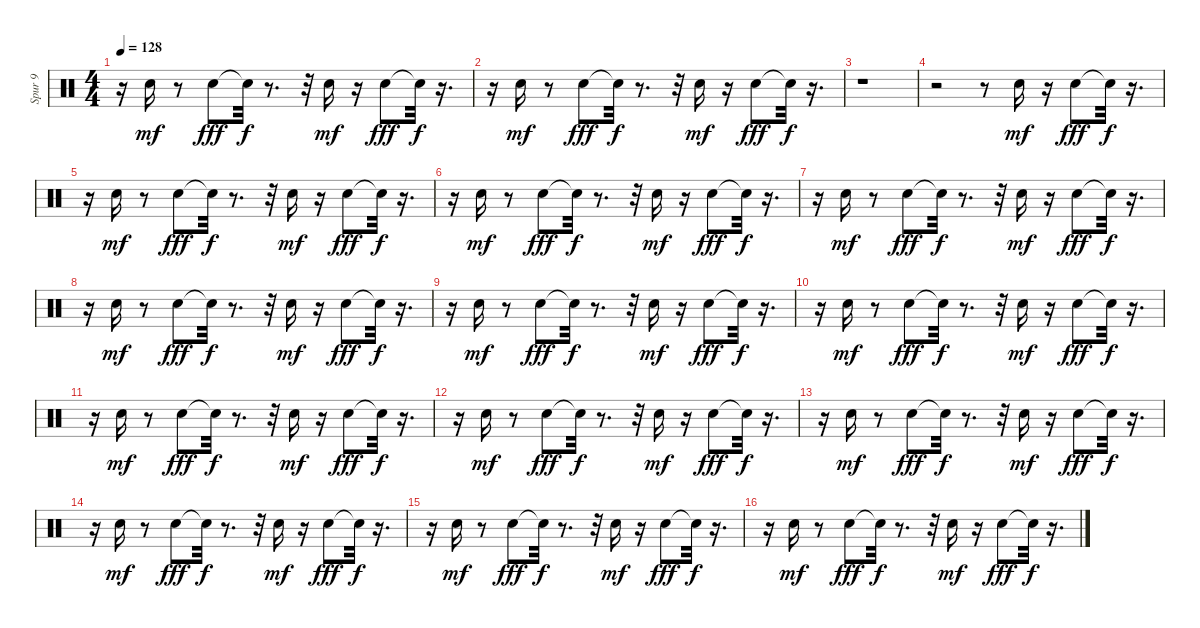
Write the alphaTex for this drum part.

\track ("Spur 9" "Spur 9") {instrument percussion}
\staff {score}
\articulation defaults
\ts (4 4)
\tempo 128
\clef neutral
\ks c
r.16{dy f} "Snare (hit) 2".16{dy mf} r.8 "Electric Snare (hit)".8{dy fff} "Snare (hit)"{t}.32{dy f} r.8{d} r.32 "Snare (hit) 2".16{dy mf} r.16 "Electric Snare (hit)".8{dy fff} "Snare (hit)"{t}.32{dy f} r.16{d} |
r.16 "Snare (hit) 2".16{dy mf} r.8 "Electric Snare (hit)".8{dy fff} "Snare (hit)"{t}.32{dy f} r.8{d} r.32 "Snare (hit) 2".16{dy mf} r.16 "Electric Snare (hit)".8{dy fff} "Snare (hit)"{t}.32{dy f} r.16{d} |
r.1 |
r.2 r.8 "Snare (hit) 2".16{dy mf} r.16 "Electric Snare (hit)".8{dy fff} "Snare (hit)"{t}.32{dy f} r.16{d} |
r.16 "Snare (hit) 2".16{dy mf} r.8 "Electric Snare (hit)".8{dy fff} "Snare (hit)"{t}.32{dy f} r.8{d} r.32 "Snare (hit) 2".16{dy mf} r.16 "Electric Snare (hit)".8{dy fff} "Snare (hit)"{t}.32{dy f} r.16{d} |
r.16 "Snare (hit) 2".16{dy mf} r.8 "Electric Snare (hit)".8{dy fff} "Snare (hit)"{t}.32{dy f} r.8{d} r.32 "Snare (hit) 2".16{dy mf} r.16 "Electric Snare (hit)".8{dy fff} "Snare (hit)"{t}.32{dy f} r.16{d} |
r.16 "Snare (hit) 2".16{dy mf} r.8 "Electric Snare (hit)".8{dy fff} "Snare (hit)"{t}.32{dy f} r.8{d} r.32 "Snare (hit) 2".16{dy mf} r.16 "Electric Snare (hit)".8{dy fff} "Snare (hit)"{t}.32{dy f} r.16{d} |
r.16 "Snare (hit) 2".16{dy mf} r.8 "Electric Snare (hit)".8{dy fff} "Snare (hit)"{t}.32{dy f} r.8{d} r.32 "Snare (hit) 2".16{dy mf} r.16 "Electric Snare (hit)".8{dy fff} "Snare (hit)"{t}.32{dy f} r.16{d} |
r.16 "Snare (hit) 2".16{dy mf} r.8 "Electric Snare (hit)".8{dy fff} "Snare (hit)"{t}.32{dy f} r.8{d} r.32 "Snare (hit) 2".16{dy mf} r.16 "Electric Snare (hit)".8{dy fff} "Snare (hit)"{t}.32{dy f} r.16{d} |
r.16 "Snare (hit) 2".16{dy mf} r.8 "Electric Snare (hit)".8{dy fff} "Snare (hit)"{t}.32{dy f} r.8{d} r.32 "Snare (hit) 2".16{dy mf} r.16 "Electric Snare (hit)".8{dy fff} "Snare (hit)"{t}.32{dy f} r.16{d} |
r.16 "Snare (hit) 2".16{dy mf} r.8 "Electric Snare (hit)".8{dy fff} "Snare (hit)"{t}.32{dy f} r.8{d} r.32 "Snare (hit) 2".16{dy mf} r.16 "Electric Snare (hit)".8{dy fff} "Snare (hit)"{t}.32{dy f} r.16{d} |
r.16 "Snare (hit) 2".16{dy mf} r.8 "Electric Snare (hit)".8{dy fff} "Snare (hit)"{t}.32{dy f} r.8{d} r.32 "Snare (hit) 2".16{dy mf} r.16 "Electric Snare (hit)".8{dy fff} "Snare (hit)"{t}.32{dy f} r.16{d} |
r.16 "Snare (hit) 2".16{dy mf} r.8 "Electric Snare (hit)".8{dy fff} "Snare (hit)"{t}.32{dy f} r.8{d} r.32 "Snare (hit) 2".16{dy mf} r.16 "Electric Snare (hit)".8{dy fff} "Snare (hit)"{t}.32{dy f} r.16{d} |
r.16 "Snare (hit) 2".16{dy mf} r.8 "Electric Snare (hit)".8{dy fff} "Snare (hit)"{t}.32{dy f} r.8{d} r.32 "Snare (hit) 2".16{dy mf} r.16 "Electric Snare (hit)".8{dy fff} "Snare (hit)"{t}.32{dy f} r.16{d} |
r.16 "Snare (hit) 2".16{dy mf} r.8 "Electric Snare (hit)".8{dy fff} "Snare (hit)"{t}.32{dy f} r.8{d} r.32 "Snare (hit) 2".16{dy mf} r.16 "Electric Snare (hit)".8{dy fff} "Snare (hit)"{t}.32{dy f} r.16{d} |
r.16 "Snare (hit) 2".16{dy mf} r.8 "Electric Snare (hit)".8{dy fff} "Snare (hit)"{t}.32{dy f} r.8{d} r.32 "Snare (hit) 2".16{dy mf} r.16 "Electric Snare (hit)".8{dy fff} "Snare (hit)"{t}.32{dy f} r.16{d}
